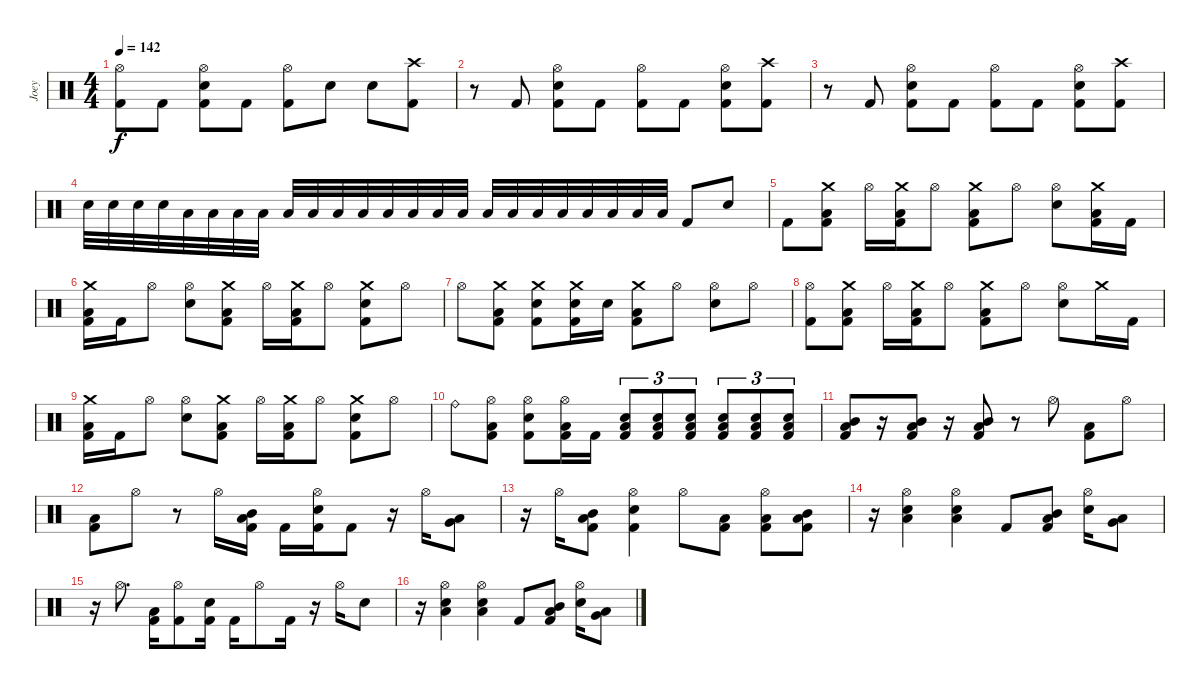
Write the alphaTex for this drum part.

\track ("Joey" "Joey") {instrument percussion}
\staff {score}
\articulation defaults
\ts (4 4)
\tempo 142
\clef neutral
\ks c
("Hi-Hat (open)" "Kick (hit) 2").8{dy f} "Kick (hit) 2".8 ("Hi-Hat (open)" "Electric Snare (hit)" "Kick (hit) 2").8 "Kick (hit) 2".8 ("Hi-Hat (open)" "Kick (hit) 2").8 "Electric Snare (hit)".8 "Electric Snare (hit)".8 ("Crash high (hit)" "Kick (hit) 2").8 |
r.8 "Kick (hit) 2".8 ("Hi-Hat (open)" "Electric Snare (hit)" "Kick (hit) 2").8 "Kick (hit) 2".8 ("Hi-Hat (open)" "Kick (hit) 2").8 "Kick (hit) 2".8 ("Hi-Hat (open)" "Electric Snare (hit)" "Kick (hit) 2").8 ("Crash high (hit)" "Kick (hit) 2").8 |
r.8 "Kick (hit) 2".8 ("Hi-Hat (open)" "Electric Snare (hit)" "Kick (hit) 2").8 "Kick (hit) 2".8 ("Hi-Hat (open)" "Kick (hit) 2").8 "Kick (hit) 2".8 ("Hi-Hat (open)" "Electric Snare (hit)" "Kick (hit) 2").8 ("Crash high (hit)" "Kick (hit) 2").8 |
"Electric Snare (hit)".32 "Electric Snare (hit)".32 "Electric Snare (hit)".32 "Electric Snare (hit)".32 "Low Floor Tom (hit)".32 "Low Floor Tom (hit)".32 "Low Floor Tom (hit)".32 "Low Floor Tom (hit)".32 "Low Floor Tom (hit)".32 "Low Floor Tom (hit)".32 "Low Floor Tom (hit)".32 "Low Floor Tom (hit)".32 "Low Floor Tom (hit)".32 "Low Floor Tom (hit)".32 "Low Floor Tom (hit)".32 "Low Floor Tom (hit)".32 "Low Floor Tom (hit)".32 "Low Floor Tom (hit)".32 "Low Floor Tom (hit)".32 "Low Floor Tom (hit)".32 "Low Floor Tom (hit)".32 "Low Floor Tom (hit)".32 "Low Floor Tom (hit)".32 "Low Floor Tom (hit)".32 "Kick (hit) 2".8 "Electric Snare (hit)".8 |
"Kick (hit) 2".8 ("Crash medium (hit)" "Low Floor Tom (hit)" "Kick (hit) 2").8 "Hi-Hat (open)".16 ("Crash medium (hit)" "Low Floor Tom (hit)" "Kick (hit) 2").16 "Hi-Hat (open)".8 ("Crash medium (hit)" "Low Floor Tom (hit)" "Kick (hit) 2").8 "Hi-Hat (open)".8 ("Hi-Hat (open)" "Electric Snare (hit)").8 ("Crash medium (hit)" "Low Floor Tom (hit)" "Kick (hit) 2").16 "Kick (hit) 2".16 |
("Crash medium (hit)" "Low Floor Tom (hit)" "Kick (hit) 2").16 "Kick (hit) 2".16 "Hi-Hat (open)".8 ("Hi-Hat (open)" "Electric Snare (hit)").8 ("Crash medium (hit)" "Low Floor Tom (hit)" "Kick (hit) 2").8 "Hi-Hat (open)".16 ("Crash medium (hit)" "Low Floor Tom (hit)" "Kick (hit) 2").16 "Hi-Hat (open)".8 ("Crash medium (hit)" "Electric Snare (hit)" "Kick (hit) 2").8 "Hi-Hat (open)".8 |
"Hi-Hat (open)".8 ("Crash medium (hit)" "Low Floor Tom (hit)" "Kick (hit) 2").8 ("Crash medium (hit)" "Electric Snare (hit)" "Kick (hit) 2").8 ("Crash medium (hit)" "Electric Snare (hit)" "Kick (hit) 2").16 "Electric Snare (hit)".16 ("Crash medium (hit)" "Low Floor Tom (hit)" "Kick (hit) 2").8 "Hi-Hat (open)".8 ("Hi-Hat (open)" "Electric Snare (hit)").8 "Hi-Hat (open)".8 |
("Hi-Hat (open)" "Kick (hit) 2").8 ("Crash medium (hit)" "Low Floor Tom (hit)" "Kick (hit) 2").8 "Hi-Hat (open)".16 ("Crash medium (hit)" "Low Floor Tom (hit)" "Kick (hit) 2").16 "Hi-Hat (open)".8 ("Crash medium (hit)" "Low Floor Tom (hit)" "Kick (hit) 2").8 "Hi-Hat (open)".8 ("Hi-Hat (open)" "Electric Snare (hit)").8 "Crash medium (hit)".16 "Kick (hit) 2".16 |
("Crash medium (hit)" "Low Floor Tom (hit)" "Kick (hit) 2").16 "Kick (hit) 2".16 "Hi-Hat (open)".8 ("Hi-Hat (open)" "Electric Snare (hit)").8 ("Crash medium (hit)" "Low Floor Tom (hit)" "Kick (hit) 2").8 "Hi-Hat (open)".16 ("Crash medium (hit)" "Low Floor Tom (hit)" "Kick (hit) 2").16 "Hi-Hat (open)".8 ("Crash medium (hit)" "Electric Snare (hit)" "Kick (hit) 2").8 "Hi-Hat (open)".8 |
"Ride (bell)".8 ("Hi-Hat (open)" "Low Floor Tom (hit)" "Kick (hit) 2").8 ("Hi-Hat (open)" "Electric Snare (hit)" "Kick (hit) 2").8 ("Hi-Hat (open)" "Low Floor Tom (hit)" "Kick (hit) 2").16 "Kick (hit) 2".16 ("Electric Snare (hit)" "Low Floor Tom (hit)" "Kick (hit) 2").8{tu (3 2)} ("Electric Snare (hit)" "Low Floor Tom (hit)" "Kick (hit) 2").8{tu (3 2)} ("Electric Snare (hit)" "Low Floor Tom (hit)" "Kick (hit) 2").8{tu (3 2)} ("Electric Snare (hit)" "Low Floor Tom (hit)" "Kick (hit) 2").8{tu (3 2)} ("Electric Snare (hit)" "Low Floor Tom (hit)" "Kick (hit) 2").8{tu (3 2)} ("Electric Snare (hit)" "Low Floor Tom (hit)" "Kick (hit) 2").8{tu (3 2)} |
("Mid Tom (hit)" "Low Floor Tom (hit)" "Kick (hit) 2").8 r.16 ("Mid Tom (hit)" "Low Floor Tom (hit)" "Kick (hit) 2").8 r.16 ("Mid Tom (hit)" "Low Floor Tom (hit)" "Kick (hit) 2").8 r.8 "Hi-Hat (open)".8 ("Low Floor Tom (hit)" "Kick (hit) 2").8 "Hi-Hat (open)".8 |
("Low Floor Tom (hit)" "Kick (hit) 2").8 "Hi-Hat (open)".8 r.8 "Hi-Hat (open)".16 ("Mid Tom (hit)" "Low Floor Tom (hit)" "Kick (hit) 2").16 "Kick (hit) 2".16 ("Hi-Hat (open)" "Electric Snare (hit)" "Kick (hit) 2").16 "Kick (hit) 2".8 r.16 "Hi-Hat (open)".16 ("Low Floor Tom (hit)" "Very Low Tom (hit)").8 |
r.16 "Hi-Hat (open)".16 ("Mid Tom (hit)" "Low Floor Tom (hit)" "Kick (hit) 2").8 ("Hi-Hat (open)" "Electric Snare (hit)" "Kick (hit) 2").4 "Hi-Hat (open)".8 ("Low Floor Tom (hit)" "Kick (hit) 2").8 ("Hi-Hat (open)" "Low Floor Tom (hit)" "Kick (hit) 2").8 ("Mid Tom (hit)" "Low Floor Tom (hit)" "Kick (hit) 2").8 |
r.16 ("Hi-Hat (open)" "Electric Snare (hit)" "Low Floor Tom (hit)").4 ("Hi-Hat (open)" "Electric Snare (hit)" "Low Floor Tom (hit)").4 "Kick (hit) 2".8 ("Mid Tom (hit)" "Low Floor Tom (hit)" "Kick (hit) 2").8 ("Hi-Hat (open)" "Electric Snare (hit)").16 ("Low Floor Tom (hit)" "Very Low Tom (hit)").8 |
r.16 "Hi-Hat (open)".8{d} ("Low Floor Tom (hit)" "Kick (hit) 2").16 ("Hi-Hat (open)" "Kick (hit) 2").8 ("Kick (hit) 2" "Electric Snare (hit)").16 "Kick (hit) 2".16 "Hi-Hat (open)".8 "Kick (hit) 2".16 r.16 "Hi-Hat (open)".16 "Electric Snare (hit)".8 |
r.16 ("Hi-Hat (open)" "Electric Snare (hit)" "Low Floor Tom (hit)").4 ("Hi-Hat (open)" "Electric Snare (hit)" "Low Floor Tom (hit)").4 "Kick (hit) 2".8 ("Mid Tom (hit)" "Low Floor Tom (hit)" "Kick (hit) 2").8 ("Hi-Hat (open)" "Electric Snare (hit)").16 ("Low Floor Tom (hit)" "Very Low Tom (hit)").8
